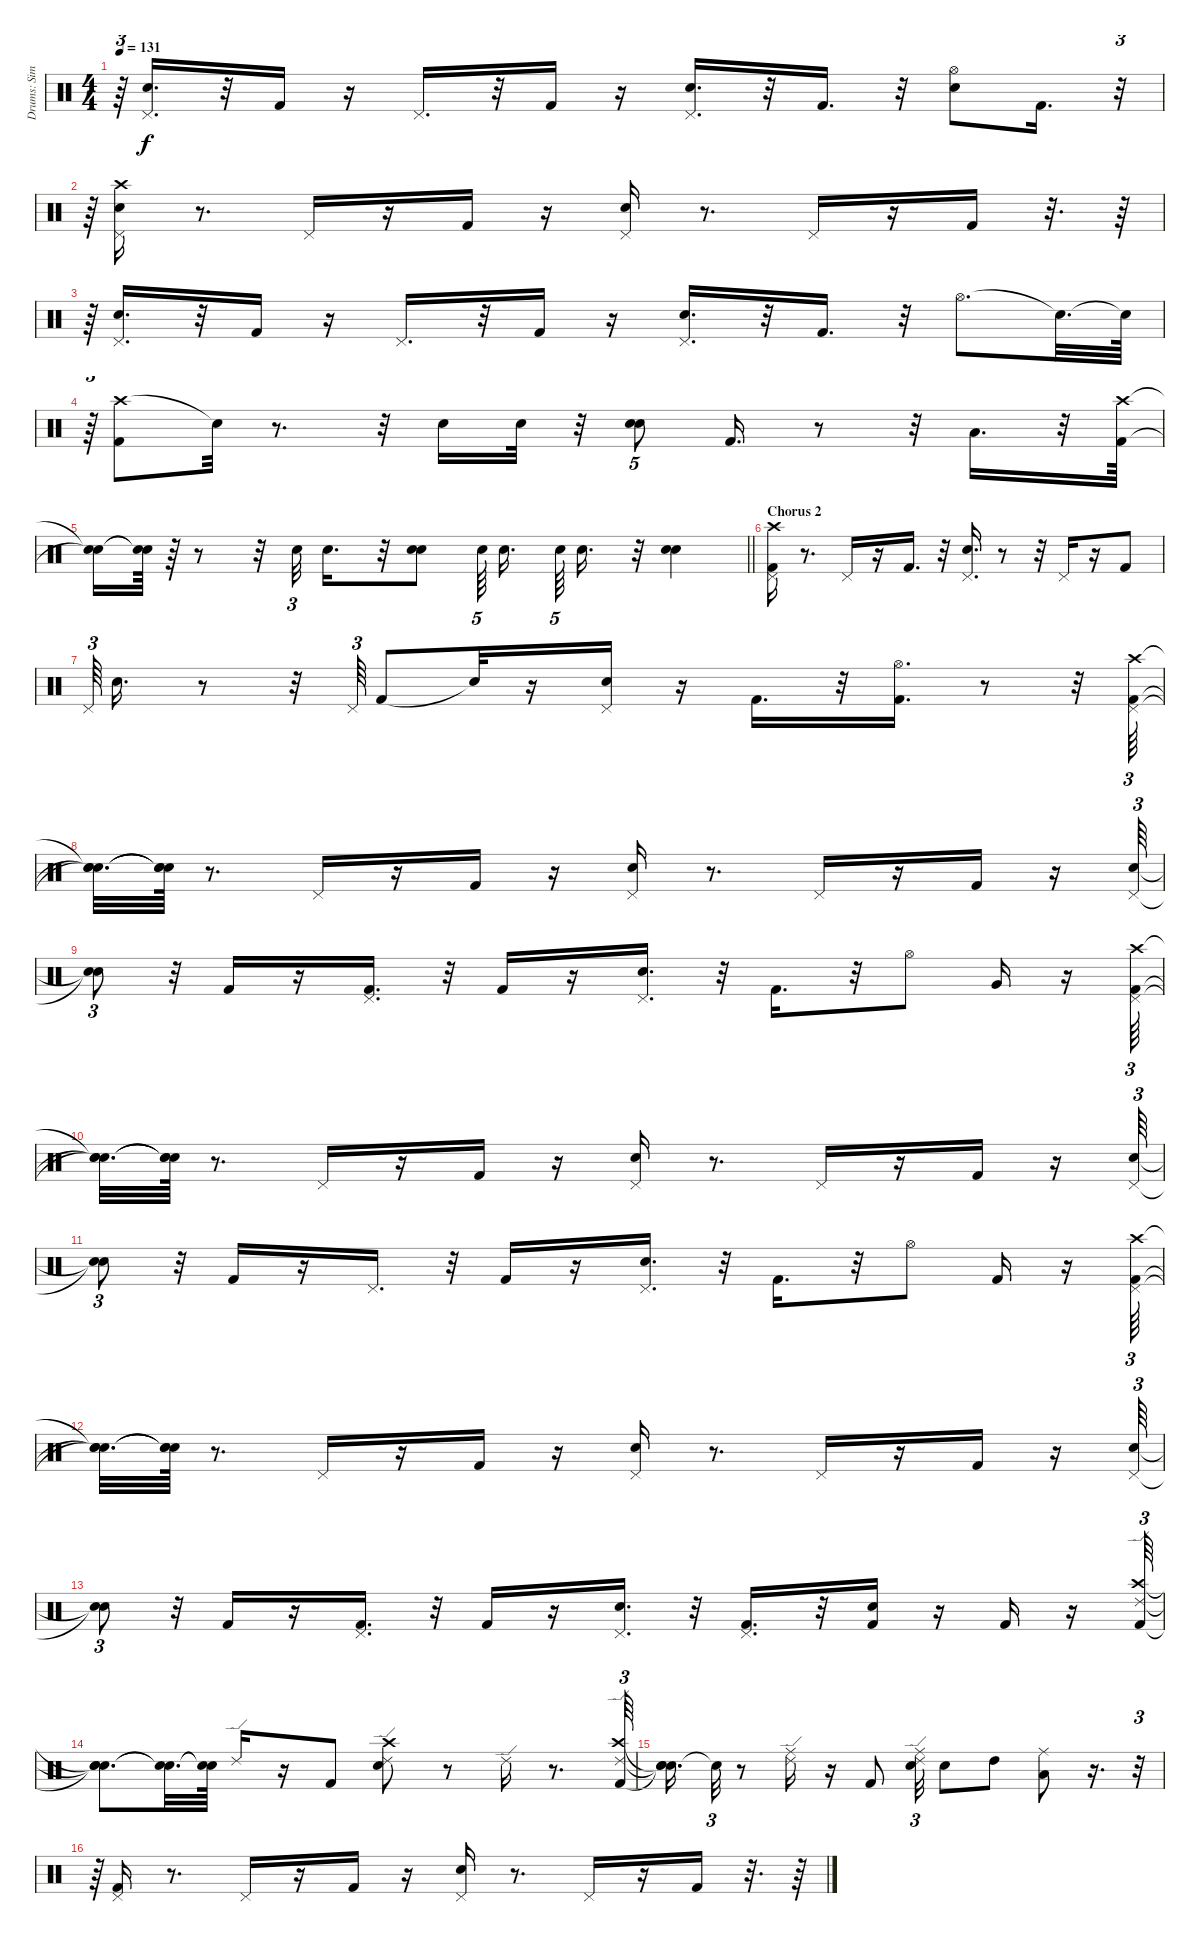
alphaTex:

\track ("Drums: Simon Kirke" "Drums: Sim") {instrument percussion}
\staff {score}
\articulation defaults
\ts (4 4)
\tempo 131
\clef neutral
\ks c
r.64{tu (3 2) dy f} ("Pedal Hi-Hat (hit)" "Electric Snare (hit)").16{d} r.32 "Kick (hit) 2".16 r.16 "Pedal Hi-Hat (hit)".16{d} r.32 "Kick (hit) 2".16 r.16 ("Pedal Hi-Hat (hit)" "Electric Snare (hit)").16{d} r.32 "Kick (hit) 2".16{d} r.32 ("Electric Snare (hit)" "Hi-Hat (open)").8 "Kick (hit) 2".16{d} r.32{tu (3 2)} |
r.64{tu (3 2)} ("Electric Snare (hit)" "Pedal Hi-Hat (hit)" "Crash high (hit)").16 r.8{d} "Pedal Hi-Hat (hit)".16 r.16 "Kick (hit) 2".16 r.16 ("Electric Snare (hit)" "Pedal Hi-Hat (hit)").16 r.8{d} "Pedal Hi-Hat (hit)".16 r.16 "Kick (hit) 2".16 r.32{d} r.64 |
r.64{tu (3 2)} ("Pedal Hi-Hat (hit)" "Electric Snare (hit)").16{d} r.32 "Kick (hit) 2".16 r.16 "Pedal Hi-Hat (hit)".16{d} r.32 "Kick (hit) 2".16 r.16 ("Pedal Hi-Hat (hit)" "Electric Snare (hit)").16{d} r.32 "Kick (hit) 2".16{d} r.32 "Hi-Hat (open)".8{d} "Snare (hit)"{t}.32{d} "Snare (hit)"{t}.64 |
r.64{tu (3 2)} ("Crash high (hit)" "Kick (hit) 2").8 "Snare (hit)"{t}.32 r.8{d} r.32 "Electric Snare (hit)".16 "Electric Snare (hit)".32 r.32 ("Electric Snare (hit)" "Electric Snare (hit)").8{tu (5 4)} "Kick (hit) 2".16{d} r.8 r.32 "Low Floor Tom (hit)".16{d} r.32 ("Crash high (hit)" "Kick (hit) 2").64 |
\barLineRight lightlight
("Snare (hit)"{t} "Snare (hit)"{t}).16 ("Snare (hit)"{t} "Snare (hit)"{t}).64 r.64 r.8 r.32 "Electric Snare (hit)".32{tu (3 2)} "Electric Snare (hit)".16{d} r.32 ("Electric Snare (hit)" "Electric Snare (hit)").8 "Electric Snare (hit)".64{tu (5 4) beam splitsecondary} "Electric Snare (hit)".16{d beam splitsecondary} "Electric Snare (hit)".64{tu (5 4)} "Electric Snare (hit)".16{d} r.32 ("Electric Snare (hit)" "Electric Snare (hit)").4 |
\section ("" "Chorus 2")
("Crash high (hit)" "Kick (hit) 2" "Pedal Hi-Hat (hit)").16 r.8{d} "Pedal Hi-Hat (hit)".16 r.16 "Kick (hit) 2".16{d} r.32 ("Pedal Hi-Hat (hit)" "Electric Snare (hit)").16{d} r.8 r.32 "Pedal Hi-Hat (hit)".16 r.16 "Kick (hit) 2".8 |
"Pedal Hi-Hat (hit)".64{tu (3 2)} "Electric Snare (hit)".16{d} r.8 r.32 "Pedal Hi-Hat (hit)".64{tu (3 2)} "Kick (hit) 2".8 "Snare (hit)"{t}.32 r.16 ("Pedal Hi-Hat (hit)" "Electric Snare (hit)").16 r.16 "Kick (hit) 2".16{d} r.32 ("Kick (hit) 2" "Hi-Hat (open)").16{d} r.8 r.32 ("Crash high (hit)" "Kick (hit) 2" "Pedal Hi-Hat (hit)").64{tu (3 2)} |
("Snare (hit)"{t} "Snare (hit)"{t} "Snare (hit)"{t}).32{d} ("Snare (hit)"{t} "Snare (hit)"{t} "Snare (hit)"{t}).64 r.8{d} "Pedal Hi-Hat (hit)".16 r.16 "Kick (hit) 2".16 r.16 ("Electric Snare (hit)" "Pedal Hi-Hat (hit)").16 r.8{d} "Pedal Hi-Hat (hit)".16 r.16 "Kick (hit) 2".16 r.16 ("Pedal Hi-Hat (hit)" "Electric Snare (hit)").64{tu (3 2)} |
("Snare (hit)"{t} "Snare (hit)"{t}).8{tu (3 2)} r.32 "Kick (hit) 2".16 r.16 ("Kick (hit) 2" "Pedal Hi-Hat (hit)").16{d} r.32 "Kick (hit) 2".16 r.16 ("Pedal Hi-Hat (hit)" "Electric Snare (hit)").16{d} r.32 "Kick (hit) 2".16{d} r.32 "Hi-Hat (open)".8 "Very Low Tom (hit)".16 r.16 ("Crash high (hit)" "Kick (hit) 2" "Pedal Hi-Hat (hit)").64{tu (3 2)} |
("Snare (hit)"{t} "Snare (hit)"{t} "Snare (hit)"{t}).32{d} ("Snare (hit)"{t} "Snare (hit)"{t} "Snare (hit)"{t}).64 r.8{d} "Pedal Hi-Hat (hit)".16 r.16 "Kick (hit) 2".16 r.16 ("Electric Snare (hit)" "Pedal Hi-Hat (hit)").16 r.8{d} "Pedal Hi-Hat (hit)".16 r.16 "Kick (hit) 2".16 r.16 ("Pedal Hi-Hat (hit)" "Electric Snare (hit)").64{tu (3 2)} |
("Snare (hit)"{t} "Snare (hit)"{t}).8{tu (3 2)} r.32 "Kick (hit) 2".16 r.16 "Pedal Hi-Hat (hit)".16{d} r.32 "Kick (hit) 2".16 r.16 ("Pedal Hi-Hat (hit)" "Electric Snare (hit)").16{d} r.32 "Kick (hit) 2".16{d} r.32 "Hi-Hat (open)".8 "Kick (hit) 2".16 r.16 ("Kick (hit) 2" "Crash high (hit)" "Pedal Hi-Hat (hit)").64{tu (3 2)} |
("Snare (hit)"{t} "Snare (hit)"{t} "Snare (hit)"{t}).32{d} ("Snare (hit)"{t} "Snare (hit)"{t} "Snare (hit)"{t}).64 r.8{d} "Pedal Hi-Hat (hit)".16 r.16 "Kick (hit) 2".16 r.16 ("Electric Snare (hit)" "Pedal Hi-Hat (hit)").16 r.8{d} "Pedal Hi-Hat (hit)".16 r.16 "Kick (hit) 2".16 r.16 ("Pedal Hi-Hat (hit)" "Electric Snare (hit)").64{tu (3 2)} |
("Snare (hit)"{t} "Snare (hit)"{t}).8{tu (3 2)} r.32 "Kick (hit) 2".16 r.16 ("Kick (hit) 2" "Pedal Hi-Hat (hit)").16{d} r.32 "Kick (hit) 2".16 r.16 ("Pedal Hi-Hat (hit)" "Electric Snare (hit)").16{d} r.32 ("Pedal Hi-Hat (hit)" "Kick (hit) 2").16{d} r.32 ("Kick (hit) 2" "Electric Snare (hit)").16 r.16 "Kick (hit) 2".16 r.16 ("Ride (edge) 2" "Crash high (hit)" "Kick (hit) 2").64{tu (3 2)} |
("Snare (hit)"{t} "Snare (hit)"{t} "Snare (hit)"{t}).8{d} ("Snare (hit)"{t} "Snare (hit)"{t}).32{d} ("Snare (hit)"{t} "Snare (hit)"{t}).64 "Ride (edge) 2".16 r.16 "Kick (hit) 2".8 ("Ride (edge) 2" "Electric Snare (hit)" "Crash high (hit)").8 r.8 "Ride (edge) 2".16 r.8{d} ("Ride (edge) 2" "Kick (hit) 2" "Crash high (hit)").64{tu (3 2)} |
("Snare (hit)"{t} "Snare (hit)"{t} "Snare (hit)"{t}).16{d} "Snare (hit)"{t}.32{tu (3 2)} r.8 ("Ride (edge) 2" "Ride (middle)").16 r.16 "Kick (hit) 2".8 ("Ride (edge) 2" "Electric Snare (hit)" "Ride (middle)").32{tu (3 2)} "Electric Snare (hit)".8 "High Tom (hit)".8 ("Ride (middle)" "Low Tom (hit)").8 r.16{d} r.32{tu (3 2)} |
r.64{tu (3 2)} ("Kick (hit) 2" "Pedal Hi-Hat (hit)").16 r.8{d} "Pedal Hi-Hat (hit)".16 r.16 "Kick (hit) 2".16 r.16 ("Electric Snare (hit)" "Pedal Hi-Hat (hit)").16 r.8{d} "Pedal Hi-Hat (hit)".16 r.16 "Kick (hit) 2".16 r.32{d} r.64
